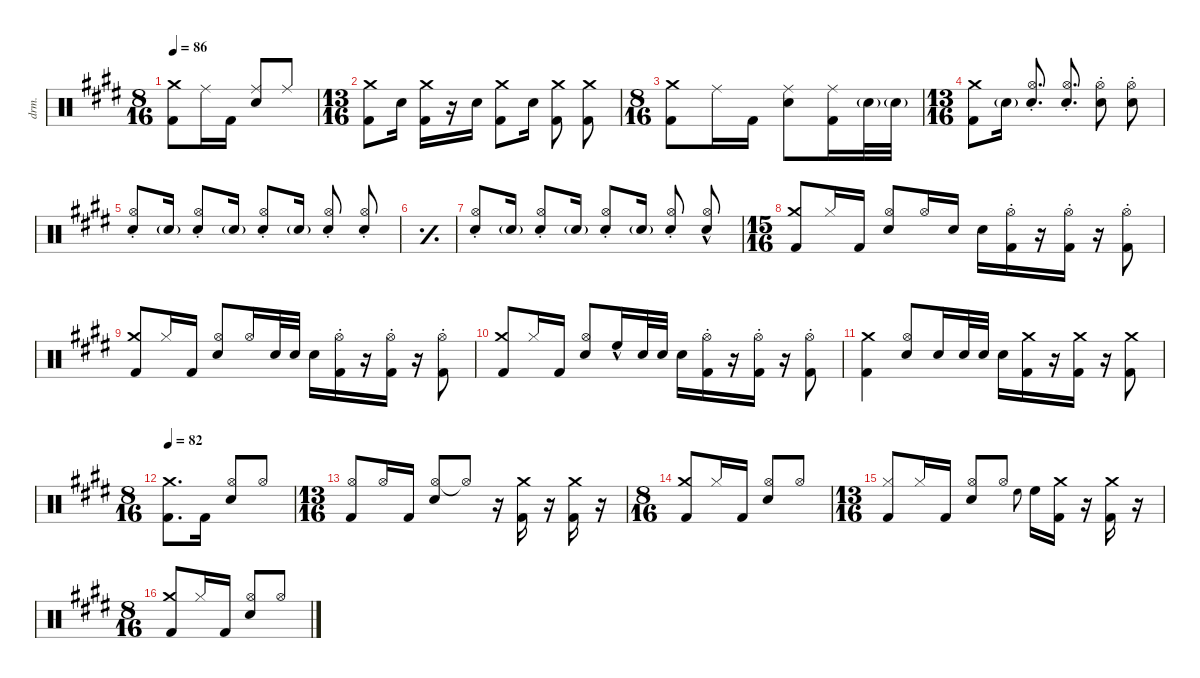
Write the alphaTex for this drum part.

\defaultSystemsLayout 4
\hideDynamics
\bracketExtendMode groupsimilarinstruments
\otherSystemsTrackNameOrientation horizontal
\chordDiagramsInScore
\track ("Drumkit" "drm.") {instrument percussion}
\staff {score}
\articulation defaults
\ts (8 16)
\beaming (8 2 2)
\tempo 86
\clef neutral
\ks e
("Crash medium (hit)"{acc forcenatural} "Kick (hit) 2"{acc forcenatural}).8{dy mf} "Ride (middle)"{acc forcenatural}.16 "Kick (hit) 2"{acc forcenatural}.16 ("Ride (middle)"{acc forcenatural} "Snare (hit) 2"{acc forcenatural}).8{beam Up} "Ride (middle)"{acc forcenatural}.8{beam Up} |
\ts (13 16)
\beaming (16 3 3 3 2 2)
("Crash medium (hit)"{acc forcenatural} "Kick (hit) 2"{acc forcenatural}).8 "Snare (hit) 2"{acc forcenatural}.16 ("Crash medium (hit)"{acc forcenatural} "Kick (hit) 2"{acc forcenatural}).16 r.16 "Snare (hit) 2"{acc forcenatural}.16 ("Crash medium (hit)"{acc forcenatural} "Kick (hit) 2"{acc forcenatural}).8 "Snare (hit) 2"{acc forcenatural}.16 ("Crash medium (hit)"{acc forcenatural} "Kick (hit) 2"{acc forcenatural}).8 ("Crash medium (hit)"{acc forcenatural} "Kick (hit) 2"{acc forcenatural}).8 |
\ts (8 16)
\beaming (8 2 2)
("Crash medium (hit)"{acc forcenatural} "Kick (hit) 2"{acc forcenatural}).8{beam Down} "Ride (middle)"{acc forcenatural}.16{beam Down} "Kick (hit) 2"{acc forcenatural}.16{beam Down} ("Snare (hit) 2"{acc forcenatural} "Ride (middle)"{acc forcenatural}).8{beam Down} ("Ride (middle)"{acc forcenatural} "Kick (hit) 2"{acc forcenatural}).16{beam Down} "Snare (hit) 2"{g acc forcenatural}.32{beam Down} "Snare (hit) 2"{g acc forcenatural}.32{beam Down} |
\ts (13 16)
\beaming (16 3 3 3 2 2)
("Crash medium (hit)"{acc forcenatural} "Kick (hit) 2"{acc forcenatural}).8{beam Down} "Snare (hit) 2"{g acc forcenatural}.16{beam Down} ("Snare (hit) 2"{st acc forcenatural} "Hi-Hat (open)"{acc forcenatural}).8{d beam Up} ("Snare (hit) 2"{st acc forcenatural} "Hi-Hat (open)"{acc forcenatural}).8{d beam Up} ("Snare (hit) 2"{st acc forcenatural} "Hi-Hat (open)"{acc forcenatural}).8{beam Down} ("Snare (hit) 2"{st acc forcenatural} "Hi-Hat (open)"{acc forcenatural}).8{beam Down} |
("Hi-Hat (open)"{acc forcenatural} "Snare (hit) 2"{st acc forcenatural}).8{beam Up} "Snare (hit) 2"{g acc forcenatural}.16{beam Up} ("Hi-Hat (open)"{acc forcenatural} "Snare (hit) 2"{st acc forcenatural}).8{beam Up} "Snare (hit) 2"{g acc forcenatural}.16{beam Up} ("Hi-Hat (open)"{acc forcenatural} "Snare (hit) 2"{st acc forcenatural}).8{beam Up} "Snare (hit) 2"{g acc forcenatural}.16{beam Up} ("Snare (hit) 2"{st acc forcenatural} "Hi-Hat (open)"{acc forcenatural}).8{beam Up} ("Snare (hit) 2"{st acc forcenatural} "Hi-Hat (open)"{acc forcenatural}).8{beam Up} |
\simile simple
|
\simile none
("Hi-Hat (open)"{acc forcenatural} "Snare (hit) 2"{st acc forcenatural}).8{beam Up} "Snare (hit) 2"{g acc forcenatural}.16{beam Up} ("Hi-Hat (open)"{acc forcenatural} "Snare (hit) 2"{st acc forcenatural}).8{beam Up} "Snare (hit) 2"{g acc forcenatural}.16{beam Up} ("Hi-Hat (open)"{acc forcenatural} "Snare (hit) 2"{st acc forcenatural}).8{beam Up} "Snare (hit) 2"{g acc forcenatural}.16{beam Up} ("Snare (hit) 2"{st acc forcenatural} "Hi-Hat (open)"{acc forcenatural}).8{beam Up} ("Snare (hit) 2"{hac acc forcenatural} "Hi-Hat (open)"{acc forcenatural}).8{beam Up} |
\ts (15 16)
\beaming (8 3 3 1)
("Crash medium (hit)"{acc forcenatural} "Kick (hit) 2"{acc forcenatural}).8{beam Up} "Hi-Hat (closed)"{acc forcenatural}.16{beam Up} "Kick (hit) 2"{acc forcenatural}.16{beam Up beam split} ("Hi-Hat (open)"{acc forcenatural} "Snare (hit) 2"{acc forcenatural}).8{beam Up beam merge} "Hi-Hat (open)"{acc forcenatural}.16{beam Up} "Snare (hit) 2"{acc forcenatural}.16{beam Up beam split} "Snare (hit) 2"{acc forcenatural}.16{beam Down} ("Hi-Hat (open)"{st acc forcenatural} "Kick (hit) 2"{acc forcenatural}).16 r.16 ("Hi-Hat (open)"{st acc forcenatural} "Kick (hit) 2"{acc forcenatural}).16 r.16 ("Hi-Hat (open)"{st acc forcenatural} "Kick (hit) 2"{acc forcenatural}).8 |
("Crash medium (hit)"{acc forcenatural} "Kick (hit) 2"{acc forcenatural}).8{beam Up} "Hi-Hat (closed)"{acc forcenatural}.16{beam Up} "Kick (hit) 2"{acc forcenatural}.16{beam Up beam split} ("Hi-Hat (open)"{acc forcenatural} "Snare (hit) 2"{acc forcenatural}).8{beam Up beam merge} "Hi-Hat (open)"{acc forcenatural}.16{beam Up} "Snare (hit) 2"{acc forcenatural}.32{beam Up beam merge} "Snare (hit) 2"{acc forcenatural}.32{beam Up beam split} "Snare (hit) 2"{acc forcenatural}.16 ("Hi-Hat (open)"{st acc forcenatural} "Kick (hit) 2"{acc forcenatural}).16 r.16 ("Kick (hit) 2"{acc forcenatural} "Hi-Hat (open)"{st acc forcenatural}).16 r.16 ("Kick (hit) 2"{acc forcenatural} "Hi-Hat (open)"{st acc forcenatural}).8 |
("Crash medium (hit)"{acc forcenatural} "Kick (hit) 2"{acc forcenatural}).8{beam Up} "Hi-Hat (closed)"{acc forcenatural}.16{beam Up} "Kick (hit) 2"{acc forcenatural}.16{beam Up beam split} ("Hi-Hat (open)"{acc forcenatural} "Snare (hit) 2"{acc forcenatural}).8{beam Up beam merge} "High Floor Tom (hit)"{hac acc forcenatural}.16{beam Up} "Snare (hit) 2"{acc forcenatural}.32{beam Up beam merge} "Snare (hit) 2"{acc forcenatural}.32{beam Up beam split} "Snare (hit) 2"{acc forcenatural}.16 ("Hi-Hat (open)"{st acc forcenatural} "Kick (hit) 2"{acc forcenatural}).16 r.16 ("Hi-Hat (open)"{st acc forcenatural} "Kick (hit) 2"{acc forcenatural}).16 r.16 ("Hi-Hat (open)"{st acc forcenatural} "Kick (hit) 2"{acc forcenatural}).8 |
("Crash medium (hit)"{acc forcenatural} "Kick (hit) 2"{acc forcenatural}).4{beam Down} ("Hi-Hat (open)"{acc forcenatural} "Snare (hit) 2"{acc forcenatural}).8{beam Up beam merge} "Snare (hit) 2"{acc forcenatural}.16{beam Up beam merge} "Snare (hit) 2"{acc forcenatural}.32{beam Up beam merge} "Snare (hit) 2"{acc forcenatural}.32{beam Up beam split} "Snare (hit) 2"{acc forcenatural}.16 ("Crash medium (hit)"{acc forcenatural} "Kick (hit) 2"{acc forcenatural}).16 r.16 ("Crash medium (hit)"{acc forcenatural} "Kick (hit) 2"{acc forcenatural}).16 r.16 ("Crash medium (hit)"{acc forcenatural} "Kick (hit) 2"{acc forcenatural}).8 |
\ts (8 16)
\beaming (8 2 2)
\tempo 82
("Crash medium (hit)"{acc forcenatural} "Kick (hit) 2"{acc forcenatural}).8{d beam Down} "Kick (hit) 2"{acc forcenatural}.16 ("Snare (hit) 2"{acc forcenatural} "Hi-Hat (open)"{acc forcenatural}).8{beam Up} "Hi-Hat (open)"{acc forcenatural}.8{beam Up} |
\ts (13 16)
\beaming (16 3 3 3 2 2)
("Hi-Hat (open)"{acc forcenatural} "Kick (hit) 2"{acc forcenatural}).8{beam Up} "Hi-Hat (open)"{acc forcenatural}.16{beam Up beam merge} "Kick (hit) 2"{acc forcenatural}.16{beam Up beam split} ("Hi-Hat (open)"{acc forcenatural} "Snare (hit) 2"{acc forcenatural}).8{beam Up beam merge} "Hi-Hat (open)"{t acc forcenatural}.8{beam Up} r.16 ("Crash medium (hit)"{acc forcenatural} "Kick (hit) 2"{acc forcenatural}).16 r.16 ("Crash medium (hit)"{acc forcenatural} "Kick (hit) 2"{acc forcenatural}).16 r.16 |
\ts (8 16)
\beaming (8 2 2)
("Crash medium (hit)"{acc forcenatural} "Kick (hit) 2"{acc forcenatural}).8{beam Up} "Hi-Hat (closed)"{acc forcenatural}.16{beam Up} "Kick (hit) 2"{acc forcenatural}.16{beam Up} ("Snare (hit) 2"{acc forcenatural} "Hi-Hat (open)"{acc forcenatural}).8{beam Up} "Hi-Hat (open)"{acc forcenatural}.8{beam Up} |
\ts (13 16)
\beaming (16 3 3 3 2 2)
("Kick (hit) 2"{acc forcenatural} "Hi-Hat (closed)"{acc forcenatural}).8{beam Up} "Hi-Hat (closed)"{acc forcenatural}.16{beam Up beam merge} "Kick (hit) 2"{acc forcenatural}.16{beam Up beam split} ("Snare (hit) 2"{acc forcenatural} "Hi-Hat (open)"{acc forcenatural}).8{beam Up beam merge} "Hi-Hat (open)"{acc forcenatural}.8{beam Up beam split} "High Floor Tom (hit)"{acc forcenatural}.8{gr onbeat beam Down beam split} "High Floor Tom (hit)"{acc forcenatural}.16{beam merge} ("Crash medium (hit)"{acc forcenatural} "Kick (hit) 2"{acc forcenatural}).16 r.16 ("Crash medium (hit)"{acc forcenatural} "Kick (hit) 2"{acc forcenatural}).16 r.16 |
\ts (8 16)
\beaming (8 2 2)
("Kick (hit) 2"{acc forcenatural} "Crash medium (hit)"{acc forcenatural}).8{beam Up} "Hi-Hat (closed)"{acc forcenatural}.16{beam Up} "Kick (hit) 2"{acc forcenatural}.16{beam Up} ("Hi-Hat (open)"{acc forcenatural} "Snare (hit) 2"{acc forcenatural}).8{beam Up} "Hi-Hat (open)"{acc forcenatural}.8{beam Up}
